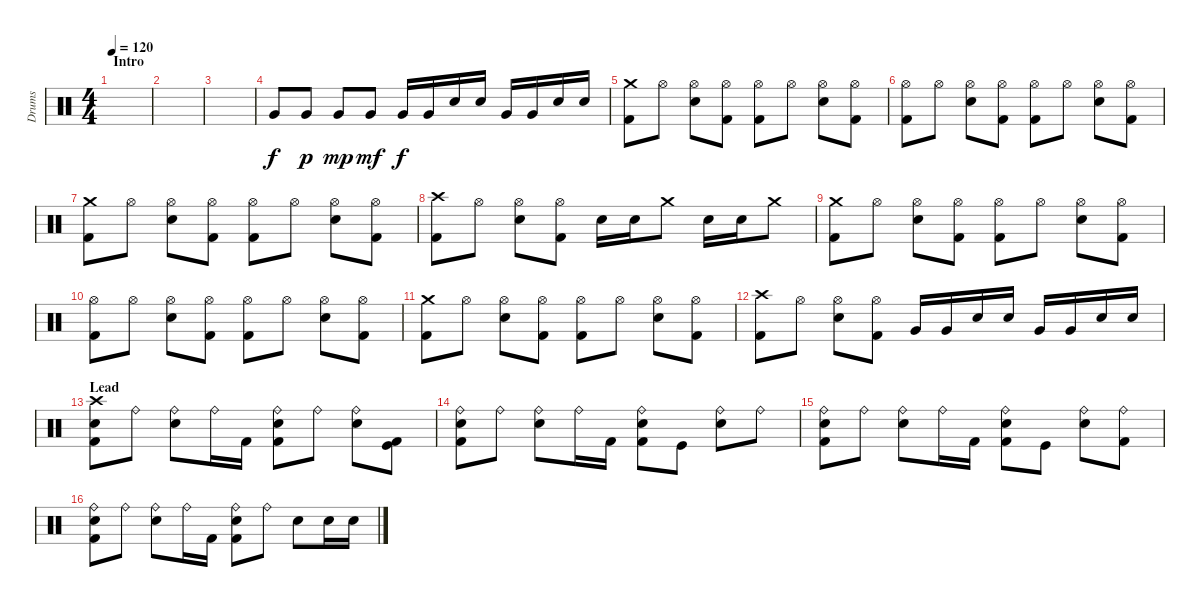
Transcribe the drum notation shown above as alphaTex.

\track ("Drums" "Drums") {instrument percussion}
\staff {score}
\articulation defaults
\ts (4 4)
\section ("" "Intro")
\tempo 120
\clef neutral
\ks c
|
|
|
"Very Low Tom (hit)".8 "Very Low Tom (hit)".8{dy p} "Very Low Tom (hit)".8{dy mp} "Very Low Tom (hit)".8{dy mf} "Very Low Tom (hit)".16{dy f} "Very Low Tom (hit)".16 "Snare (hit) 2".16 "Snare (hit) 2".16 "Very Low Tom (hit)".16 "Very Low Tom (hit)".16 "Snare (hit) 2".16 "Snare (hit) 2".16 |
("Kick (hit) 2" "Crash medium (hit)").8 "Hi-Hat (open)".8 ("Snare (hit) 2" "Hi-Hat (open)").8 ("Kick (hit) 2" "Hi-Hat (open)").8 ("Kick (hit) 2" "Hi-Hat (open)").8 "Hi-Hat (open)".8 ("Snare (hit) 2" "Hi-Hat (open)").8 ("Kick (hit) 2" "Hi-Hat (open)").8 |
("Kick (hit) 2" "Hi-Hat (open)").8 "Hi-Hat (open)".8 ("Snare (hit) 2" "Hi-Hat (open)").8 ("Kick (hit) 2" "Hi-Hat (open)").8 ("Kick (hit) 2" "Hi-Hat (open)").8 "Hi-Hat (open)".8 ("Snare (hit) 2" "Hi-Hat (open)").8 ("Kick (hit) 2" "Hi-Hat (open)").8 |
("Kick (hit) 2" "Crash medium (hit)").8 "Hi-Hat (open)".8 ("Snare (hit) 2" "Hi-Hat (open)").8 ("Kick (hit) 2" "Hi-Hat (open)").8 ("Kick (hit) 2" "Hi-Hat (open)").8 "Hi-Hat (open)".8 ("Snare (hit) 2" "Hi-Hat (open)").8 ("Kick (hit) 2" "Hi-Hat (open)").8 |
("Kick (hit) 2" "Crash high (hit)").8 "Hi-Hat (open)".8 ("Snare (hit) 2" "Hi-Hat (open)").8 ("Kick (hit) 2" "Hi-Hat (open)").8 "Snare (hit) 2".16 "Snare (hit) 2".16 "Crash medium (hit)".8 "Snare (hit) 2".16 "Snare (hit) 2".16 "Crash medium (hit)".8 |
("Kick (hit) 2" "Crash medium (hit)").8 "Hi-Hat (open)".8 ("Snare (hit) 2" "Hi-Hat (open)").8 ("Kick (hit) 2" "Hi-Hat (open)").8 ("Kick (hit) 2" "Hi-Hat (open)").8 "Hi-Hat (open)".8 ("Snare (hit) 2" "Hi-Hat (open)").8 ("Kick (hit) 2" "Hi-Hat (open)").8 |
("Kick (hit) 2" "Hi-Hat (open)").8 "Hi-Hat (open)".8 ("Snare (hit) 2" "Hi-Hat (open)").8 ("Kick (hit) 2" "Hi-Hat (open)").8 ("Kick (hit) 2" "Hi-Hat (open)").8 "Hi-Hat (open)".8 ("Snare (hit) 2" "Hi-Hat (open)").8 ("Kick (hit) 2" "Hi-Hat (open)").8 |
("Kick (hit) 2" "Crash medium (hit)").8 "Hi-Hat (open)".8 ("Snare (hit) 2" "Hi-Hat (open)").8 ("Kick (hit) 2" "Hi-Hat (open)").8 ("Kick (hit) 2" "Hi-Hat (open)").8 "Hi-Hat (open)".8 ("Snare (hit) 2" "Hi-Hat (open)").8 ("Kick (hit) 2" "Hi-Hat (open)").8 |
("Kick (hit) 2" "Crash high (hit)").8 "Hi-Hat (open)".8 ("Snare (hit) 2" "Hi-Hat (open)").8 ("Kick (hit) 2" "Hi-Hat (open)").8 "Very Low Tom (hit)".16 "Very Low Tom (hit)".16 "Snare (hit) 2".16 "Snare (hit) 2".16 "Very Low Tom (hit)".16 "Very Low Tom (hit)".16 "Snare (hit) 2".16 "Snare (hit) 2".16 |
\section ("" "Lead")
("Kick (hit) 2" "Snare (hit) 2" "Crash high (hit)").8 "Ride (bell)".8 ("Snare (hit) 2" "Ride (bell)").8 "Ride (bell)".16 "Kick (hit) 2".16 ("Kick (hit) 2" "Snare (hit) 2" "Ride (bell)").8 "Ride (bell)".8 ("Snare (hit) 2" "Ride (bell)").8 ("Kick (hit) 2" "Kick (hit)").8 |
("Kick (hit) 2" "Snare (hit) 2" "Ride (bell)").8 "Ride (bell)".8 ("Snare (hit) 2" "Ride (bell)").8 "Ride (bell)".16 "Kick (hit) 2".16 ("Kick (hit) 2" "Snare (hit) 2" "Ride (bell)").8 "Kick (hit)".8 ("Snare (hit) 2" "Ride (bell)").8 "Ride (bell)".8 |
("Kick (hit) 2" "Snare (hit) 2" "Ride (bell)").8 "Ride (bell)".8 ("Snare (hit) 2" "Ride (bell)").8 "Ride (bell)".16 "Kick (hit) 2".16 ("Kick (hit) 2" "Snare (hit) 2" "Ride (bell)").8 "Kick (hit)".8 ("Snare (hit) 2" "Ride (bell)").8 ("Kick (hit) 2" "Ride (bell)").8 |
("Kick (hit) 2" "Snare (hit) 2" "Ride (bell)").8 "Ride (bell)".8 ("Snare (hit) 2" "Ride (bell)").8 "Ride (bell)".16 "Kick (hit) 2".16 ("Kick (hit) 2" "Snare (hit) 2" "Ride (bell)").8 "Ride (bell)".8 "Snare (hit) 2".8 "Snare (hit) 2".16 "Snare (hit) 2".16
